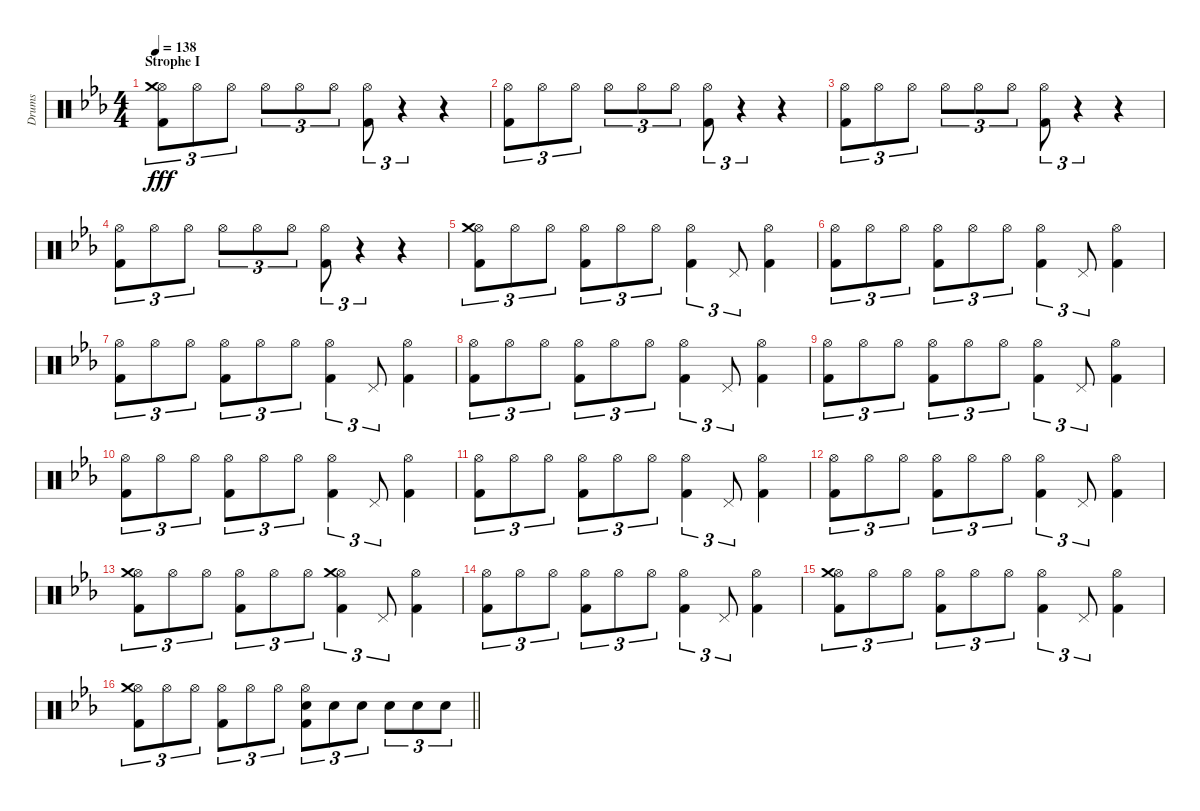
\track ("Drums" "Drums") {instrument percussion}
\staff {score}
\articulation defaults
\ts (4 4)
\section ("" "Strophe I")
\tempo 138
\clef neutral
\ks eb
("Hi-Hat (open)" "Crash medium (hit)" "Kick (hit) 2").8{tu (3 2) dy fff} "Hi-Hat (open)".8{tu (3 2)} "Hi-Hat (open)".8{tu (3 2)} "Hi-Hat (open)".8{tu (3 2)} "Hi-Hat (open)".8{tu (3 2)} "Hi-Hat (open)".8{tu (3 2)} ("Hi-Hat (open)" "Kick (hit) 2").8{tu (3 2)} r.4{tu (3 2)} r.4 |
("Hi-Hat (open)" "Kick (hit) 2").8{tu (3 2)} "Hi-Hat (open)".8{tu (3 2)} "Hi-Hat (open)".8{tu (3 2)} "Hi-Hat (open)".8{tu (3 2)} "Hi-Hat (open)".8{tu (3 2)} "Hi-Hat (open)".8{tu (3 2)} ("Hi-Hat (open)" "Kick (hit) 2").8{tu (3 2)} r.4{tu (3 2)} r.4 |
("Hi-Hat (open)" "Kick (hit) 2").8{tu (3 2)} "Hi-Hat (open)".8{tu (3 2)} "Hi-Hat (open)".8{tu (3 2)} "Hi-Hat (open)".8{tu (3 2)} "Hi-Hat (open)".8{tu (3 2)} "Hi-Hat (open)".8{tu (3 2)} ("Hi-Hat (open)" "Kick (hit) 2").8{tu (3 2)} r.4{tu (3 2)} r.4 |
("Hi-Hat (open)" "Kick (hit) 2").8{tu (3 2)} "Hi-Hat (open)".8{tu (3 2)} "Hi-Hat (open)".8{tu (3 2)} "Hi-Hat (open)".8{tu (3 2)} "Hi-Hat (open)".8{tu (3 2)} "Hi-Hat (open)".8{tu (3 2)} ("Hi-Hat (open)" "Kick (hit) 2").8{tu (3 2)} r.4{tu (3 2)} r.4 |
("Hi-Hat (open)" "Crash medium (hit)" "Kick (hit) 2").8{tu (3 2)} "Hi-Hat (open)".8{tu (3 2)} "Hi-Hat (open)".8{tu (3 2)} ("Hi-Hat (open)" "Kick (hit) 2").8{tu (3 2)} "Hi-Hat (open)".8{tu (3 2)} "Hi-Hat (open)".8{tu (3 2)} ("Hi-Hat (open)" "Kick (hit) 2").4{tu (3 2)} "Pedal Hi-Hat (hit)".8{tu (3 2)} ("Hi-Hat (open)" "Kick (hit) 2").4 |
("Hi-Hat (open)" "Kick (hit) 2").8{tu (3 2)} "Hi-Hat (open)".8{tu (3 2)} "Hi-Hat (open)".8{tu (3 2)} ("Hi-Hat (open)" "Kick (hit) 2").8{tu (3 2)} "Hi-Hat (open)".8{tu (3 2)} "Hi-Hat (open)".8{tu (3 2)} ("Hi-Hat (open)" "Kick (hit) 2").4{tu (3 2)} "Pedal Hi-Hat (hit)".8{tu (3 2)} ("Hi-Hat (open)" "Kick (hit) 2").4 |
("Hi-Hat (open)" "Kick (hit) 2").8{tu (3 2)} "Hi-Hat (open)".8{tu (3 2)} "Hi-Hat (open)".8{tu (3 2)} ("Hi-Hat (open)" "Kick (hit) 2").8{tu (3 2)} "Hi-Hat (open)".8{tu (3 2)} "Hi-Hat (open)".8{tu (3 2)} ("Hi-Hat (open)" "Kick (hit) 2").4{tu (3 2)} "Pedal Hi-Hat (hit)".8{tu (3 2)} ("Hi-Hat (open)" "Kick (hit) 2").4 |
("Hi-Hat (open)" "Kick (hit) 2").8{tu (3 2)} "Hi-Hat (open)".8{tu (3 2)} "Hi-Hat (open)".8{tu (3 2)} ("Hi-Hat (open)" "Kick (hit) 2").8{tu (3 2)} "Hi-Hat (open)".8{tu (3 2)} "Hi-Hat (open)".8{tu (3 2)} ("Hi-Hat (open)" "Kick (hit) 2").4{tu (3 2)} "Pedal Hi-Hat (hit)".8{tu (3 2)} ("Hi-Hat (open)" "Kick (hit) 2").4 |
("Hi-Hat (open)" "Kick (hit) 2").8{tu (3 2)} "Hi-Hat (open)".8{tu (3 2)} "Hi-Hat (open)".8{tu (3 2)} ("Hi-Hat (open)" "Kick (hit) 2").8{tu (3 2)} "Hi-Hat (open)".8{tu (3 2)} "Hi-Hat (open)".8{tu (3 2)} ("Hi-Hat (open)" "Kick (hit) 2").4{tu (3 2)} "Pedal Hi-Hat (hit)".8{tu (3 2)} ("Hi-Hat (open)" "Kick (hit) 2").4 |
("Hi-Hat (open)" "Kick (hit) 2").8{tu (3 2)} "Hi-Hat (open)".8{tu (3 2)} "Hi-Hat (open)".8{tu (3 2)} ("Hi-Hat (open)" "Kick (hit) 2").8{tu (3 2)} "Hi-Hat (open)".8{tu (3 2)} "Hi-Hat (open)".8{tu (3 2)} ("Hi-Hat (open)" "Kick (hit) 2").4{tu (3 2)} "Pedal Hi-Hat (hit)".8{tu (3 2)} ("Hi-Hat (open)" "Kick (hit) 2").4 |
("Hi-Hat (open)" "Kick (hit) 2").8{tu (3 2)} "Hi-Hat (open)".8{tu (3 2)} "Hi-Hat (open)".8{tu (3 2)} ("Hi-Hat (open)" "Kick (hit) 2").8{tu (3 2)} "Hi-Hat (open)".8{tu (3 2)} "Hi-Hat (open)".8{tu (3 2)} ("Hi-Hat (open)" "Kick (hit) 2").4{tu (3 2)} "Pedal Hi-Hat (hit)".8{tu (3 2)} ("Hi-Hat (open)" "Kick (hit) 2").4 |
("Hi-Hat (open)" "Kick (hit) 2").8{tu (3 2)} "Hi-Hat (open)".8{tu (3 2)} "Hi-Hat (open)".8{tu (3 2)} ("Hi-Hat (open)" "Kick (hit) 2").8{tu (3 2)} "Hi-Hat (open)".8{tu (3 2)} "Hi-Hat (open)".8{tu (3 2)} ("Hi-Hat (open)" "Kick (hit) 2").4{tu (3 2)} "Pedal Hi-Hat (hit)".8{tu (3 2)} ("Hi-Hat (open)" "Kick (hit) 2").4 |
("Hi-Hat (open)" "Crash medium (hit)" "Kick (hit) 2").8{tu (3 2)} "Hi-Hat (open)".8{tu (3 2)} "Hi-Hat (open)".8{tu (3 2)} ("Hi-Hat (open)" "Kick (hit) 2").8{tu (3 2)} "Hi-Hat (open)".8{tu (3 2)} "Hi-Hat (open)".8{tu (3 2)} ("Hi-Hat (open)" "Crash medium (hit)" "Kick (hit) 2").4{tu (3 2)} "Pedal Hi-Hat (hit)".8{tu (3 2)} ("Hi-Hat (open)" "Kick (hit) 2").4 |
("Hi-Hat (open)" "Kick (hit) 2").8{tu (3 2)} "Hi-Hat (open)".8{tu (3 2)} "Hi-Hat (open)".8{tu (3 2)} ("Hi-Hat (open)" "Kick (hit) 2").8{tu (3 2)} "Hi-Hat (open)".8{tu (3 2)} "Hi-Hat (open)".8{tu (3 2)} ("Hi-Hat (open)" "Kick (hit) 2").4{tu (3 2)} "Pedal Hi-Hat (hit)".8{tu (3 2)} ("Hi-Hat (open)" "Kick (hit) 2").4 |
("Hi-Hat (open)" "Crash medium (hit)" "Kick (hit) 2").8{tu (3 2)} "Hi-Hat (open)".8{tu (3 2)} "Hi-Hat (open)".8{tu (3 2)} ("Hi-Hat (open)" "Kick (hit) 2").8{tu (3 2)} "Hi-Hat (open)".8{tu (3 2)} "Hi-Hat (open)".8{tu (3 2)} ("Hi-Hat (open)" "Kick (hit) 2").4{tu (3 2)} "Pedal Hi-Hat (hit)".8{tu (3 2)} ("Hi-Hat (open)" "Kick (hit) 2").4 |
\barLineRight lightlight
("Hi-Hat (open)" "Crash medium (hit)" "Kick (hit) 2").8{tu (3 2)} "Hi-Hat (open)".8{tu (3 2)} "Hi-Hat (open)".8{tu (3 2)} ("Hi-Hat (open)" "Kick (hit) 2").8{tu (3 2)} "Hi-Hat (open)".8{tu (3 2)} "Hi-Hat (open)".8{tu (3 2)} ("Hi-Hat (open)" "Snare (hit) 2" "Kick (hit) 2").8{tu (3 2)} "Snare (hit) 2".8{tu (3 2)} "Snare (hit) 2".8{tu (3 2)} "Snare (hit) 2".8{tu (3 2)} "Snare (hit) 2".8{tu (3 2)} "Snare (hit) 2".8{tu (3 2)}
